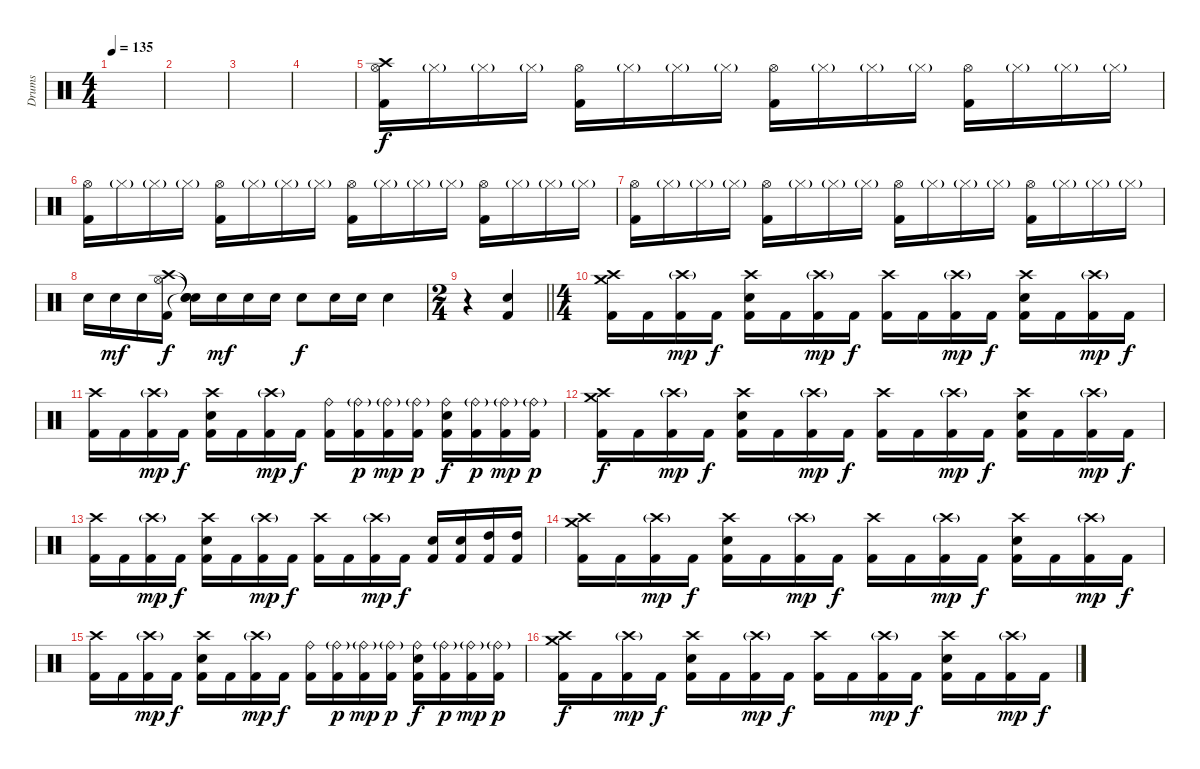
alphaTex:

\track ("Drums" "Drums") {instrument percussion}
\staff {score}
\articulation defaults
\ts (4 4)
\tempo 135
\clef neutral
\ks c
|
|
|
|
("Crash high (hit)" "Hi-Hat (open)" "Kick (hit) 2").16 "Hi-Hat (closed)"{g}.16 "Hi-Hat (closed)"{g}.16 "Hi-Hat (closed)"{g}.16 ("Hi-Hat (open)" "Kick (hit) 2").16 "Hi-Hat (closed)"{g}.16 "Hi-Hat (closed)"{g}.16 "Hi-Hat (closed)"{g}.16 ("Hi-Hat (open)" "Kick (hit) 2").16 "Hi-Hat (closed)"{g}.16 "Hi-Hat (closed)"{g}.16 "Hi-Hat (closed)"{g}.16 ("Hi-Hat (open)" "Kick (hit) 2").16 "Hi-Hat (closed)"{g}.16 "Hi-Hat (closed)"{g}.16 "Hi-Hat (closed)"{g}.16 |
("Hi-Hat (open)" "Kick (hit) 2").16 "Hi-Hat (closed)"{g}.16 "Hi-Hat (closed)"{g}.16 "Hi-Hat (closed)"{g}.16 ("Hi-Hat (open)" "Kick (hit) 2").16 "Hi-Hat (closed)"{g}.16 "Hi-Hat (closed)"{g}.16 "Hi-Hat (closed)"{g}.16 ("Hi-Hat (open)" "Kick (hit) 2").16 "Hi-Hat (closed)"{g}.16 "Hi-Hat (closed)"{g}.16 "Hi-Hat (closed)"{g}.16 ("Hi-Hat (open)" "Kick (hit) 2").16 "Hi-Hat (closed)"{g}.16 "Hi-Hat (closed)"{g}.16 "Hi-Hat (closed)"{g}.16 |
("Hi-Hat (open)" "Kick (hit) 2").16 "Hi-Hat (closed)"{g}.16 "Hi-Hat (closed)"{g}.16 "Hi-Hat (closed)"{g}.16 ("Hi-Hat (open)" "Kick (hit) 2").16 "Hi-Hat (closed)"{g}.16 "Hi-Hat (closed)"{g}.16 "Hi-Hat (closed)"{g}.16 ("Hi-Hat (open)" "Kick (hit) 2").16 "Hi-Hat (closed)"{g}.16 "Hi-Hat (closed)"{g}.16 "Hi-Hat (closed)"{g}.16 ("Hi-Hat (open)" "Kick (hit) 2").16 "Hi-Hat (closed)"{g}.16 "Hi-Hat (closed)"{g}.16 "Hi-Hat (closed)"{g}.16 |
"Electric Snare (hit)".16{dy f} "Electric Snare (hit)".16{dy mf} "Electric Snare (hit)".16 ("Crash high (hit)" "Hi-Hat (open)" "Kick (hit) 2").16{dy f} ("Snare (hit)"{t} "Snare (hit)"{t} "Snare (hit)"{t}).16 "Electric Snare (hit)".16{dy mf} "Electric Snare (hit)".16 "Electric Snare (hit)".16 "Electric Snare (hit)".8{dy f} "Electric Snare (hit)".16 "Electric Snare (hit)".16 "Electric Snare (hit)".4 |
\ts (2 4)
\barLineRight lightlight
r.4 ("Electric Snare (hit)" "Kick (hit) 2").4 |
\ts (4 4)
("Crash high (hit)" "Crash medium (hit)" "Kick (hit) 2").16 "Kick (hit) 2".16 ("Crash high (hit)"{g} "Kick (hit) 2").16{dy mp} "Kick (hit) 2".16{dy f} ("Crash high (hit)" "Electric Snare (hit)" "Kick (hit) 2").16 "Kick (hit) 2".16 ("Crash high (hit)"{g} "Kick (hit) 2").16{dy mp} "Kick (hit) 2".16{dy f} ("Crash high (hit)" "Kick (hit) 2").16 "Kick (hit) 2".16 ("Crash high (hit)"{g} "Kick (hit) 2").16{dy mp} "Kick (hit) 2".16{dy f} ("Crash high (hit)" "Electric Snare (hit)" "Kick (hit) 2").16 "Kick (hit) 2".16 ("Crash high (hit)"{g} "Kick (hit) 2").16{dy mp} "Kick (hit) 2".16{dy f} |
("Crash high (hit)" "Kick (hit) 2").16 "Kick (hit) 2".16 ("Crash high (hit)"{g} "Kick (hit) 2").16{dy mp} "Kick (hit) 2".16{dy f} ("Crash high (hit)" "Electric Snare (hit)" "Kick (hit) 2").16 "Kick (hit) 2".16 ("Crash high (hit)"{g} "Kick (hit) 2").16{dy mp} "Kick (hit) 2".16{dy f} ("Ride (bell)" "Kick (hit) 2").16 ("Ride (bell)"{g} "Kick (hit) 2").16{dy p} ("Ride (bell)"{g} "Kick (hit) 2").16{dy mp} ("Ride (bell)"{g} "Kick (hit) 2").16{dy p} ("Ride (bell)" "Electric Snare (hit)" "Kick (hit) 2").16{dy f} ("Ride (bell)"{g} "Kick (hit) 2").16{dy p} ("Ride (bell)"{g} "Kick (hit) 2").16{dy mp} ("Ride (bell)"{g} "Kick (hit) 2").16{dy p} |
("Crash high (hit)" "Crash medium (hit)" "Kick (hit) 2").16{dy f} "Kick (hit) 2".16 ("Crash high (hit)"{g} "Kick (hit) 2").16{dy mp} "Kick (hit) 2".16{dy f} ("Crash high (hit)" "Electric Snare (hit)" "Kick (hit) 2").16 "Kick (hit) 2".16 ("Crash high (hit)"{g} "Kick (hit) 2").16{dy mp} "Kick (hit) 2".16{dy f} ("Crash high (hit)" "Kick (hit) 2").16 "Kick (hit) 2".16 ("Crash high (hit)"{g} "Kick (hit) 2").16{dy mp} "Kick (hit) 2".16{dy f} ("Crash high (hit)" "Electric Snare (hit)" "Kick (hit) 2").16 "Kick (hit) 2".16 ("Crash high (hit)"{g} "Kick (hit) 2").16{dy mp} "Kick (hit) 2".16{dy f} |
("Crash high (hit)" "Kick (hit) 2").16 "Kick (hit) 2".16 ("Crash high (hit)"{g} "Kick (hit) 2").16{dy mp} "Kick (hit) 2".16{dy f} ("Crash high (hit)" "Electric Snare (hit)" "Kick (hit) 2").16 "Kick (hit) 2".16 ("Crash high (hit)"{g} "Kick (hit) 2").16{dy mp} "Kick (hit) 2".16{dy f} ("Crash high (hit)" "Kick (hit) 2").16 "Kick (hit) 2".16 ("Crash high (hit)"{g} "Kick (hit) 2").16{dy mp} "Kick (hit) 2".16{dy f} ("Electric Snare (hit)" "Kick (hit) 2").16 ("Electric Snare (hit)" "Kick (hit) 2").16 ("High Tom (hit)" "Kick (hit) 2").16 ("High Tom (hit)" "Kick (hit) 2").16 |
("Crash high (hit)" "Crash medium (hit)" "Kick (hit) 2").16 "Kick (hit) 2".16 ("Crash high (hit)"{g} "Kick (hit) 2").16{dy mp} "Kick (hit) 2".16{dy f} ("Crash high (hit)" "Electric Snare (hit)" "Kick (hit) 2").16 "Kick (hit) 2".16 ("Crash high (hit)"{g} "Kick (hit) 2").16{dy mp} "Kick (hit) 2".16{dy f} ("Crash high (hit)" "Kick (hit) 2").16 "Kick (hit) 2".16 ("Crash high (hit)"{g} "Kick (hit) 2").16{dy mp} "Kick (hit) 2".16{dy f} ("Crash high (hit)" "Electric Snare (hit)" "Kick (hit) 2").16 "Kick (hit) 2".16 ("Crash high (hit)"{g} "Kick (hit) 2").16{dy mp} "Kick (hit) 2".16{dy f} |
("Crash high (hit)" "Kick (hit) 2").16 "Kick (hit) 2".16 ("Crash high (hit)"{g} "Kick (hit) 2").16{dy mp} "Kick (hit) 2".16{dy f} ("Crash high (hit)" "Electric Snare (hit)" "Kick (hit) 2").16 "Kick (hit) 2".16 ("Crash high (hit)"{g} "Kick (hit) 2").16{dy mp} "Kick (hit) 2".16{dy f} ("Ride (bell)" "Kick (hit) 2").16 ("Ride (bell)"{g} "Kick (hit) 2").16{dy p} ("Ride (bell)"{g} "Kick (hit) 2").16{dy mp} ("Ride (bell)"{g} "Kick (hit) 2").16{dy p} ("Ride (bell)" "Electric Snare (hit)" "Kick (hit) 2").16{dy f} ("Ride (bell)"{g} "Kick (hit) 2").16{dy p} ("Ride (bell)"{g} "Kick (hit) 2").16{dy mp} ("Ride (bell)"{g} "Kick (hit) 2").16{dy p} |
("Crash high (hit)" "Crash medium (hit)" "Kick (hit) 2").16{dy f} "Kick (hit) 2".16 ("Crash high (hit)"{g} "Kick (hit) 2").16{dy mp} "Kick (hit) 2".16{dy f} ("Crash high (hit)" "Electric Snare (hit)" "Kick (hit) 2").16 "Kick (hit) 2".16 ("Crash high (hit)"{g} "Kick (hit) 2").16{dy mp} "Kick (hit) 2".16{dy f} ("Crash high (hit)" "Kick (hit) 2").16 "Kick (hit) 2".16 ("Crash high (hit)"{g} "Kick (hit) 2").16{dy mp} "Kick (hit) 2".16{dy f} ("Crash high (hit)" "Electric Snare (hit)" "Kick (hit) 2").16 "Kick (hit) 2".16 ("Crash high (hit)"{g} "Kick (hit) 2").16{dy mp} "Kick (hit) 2".16{dy f}
